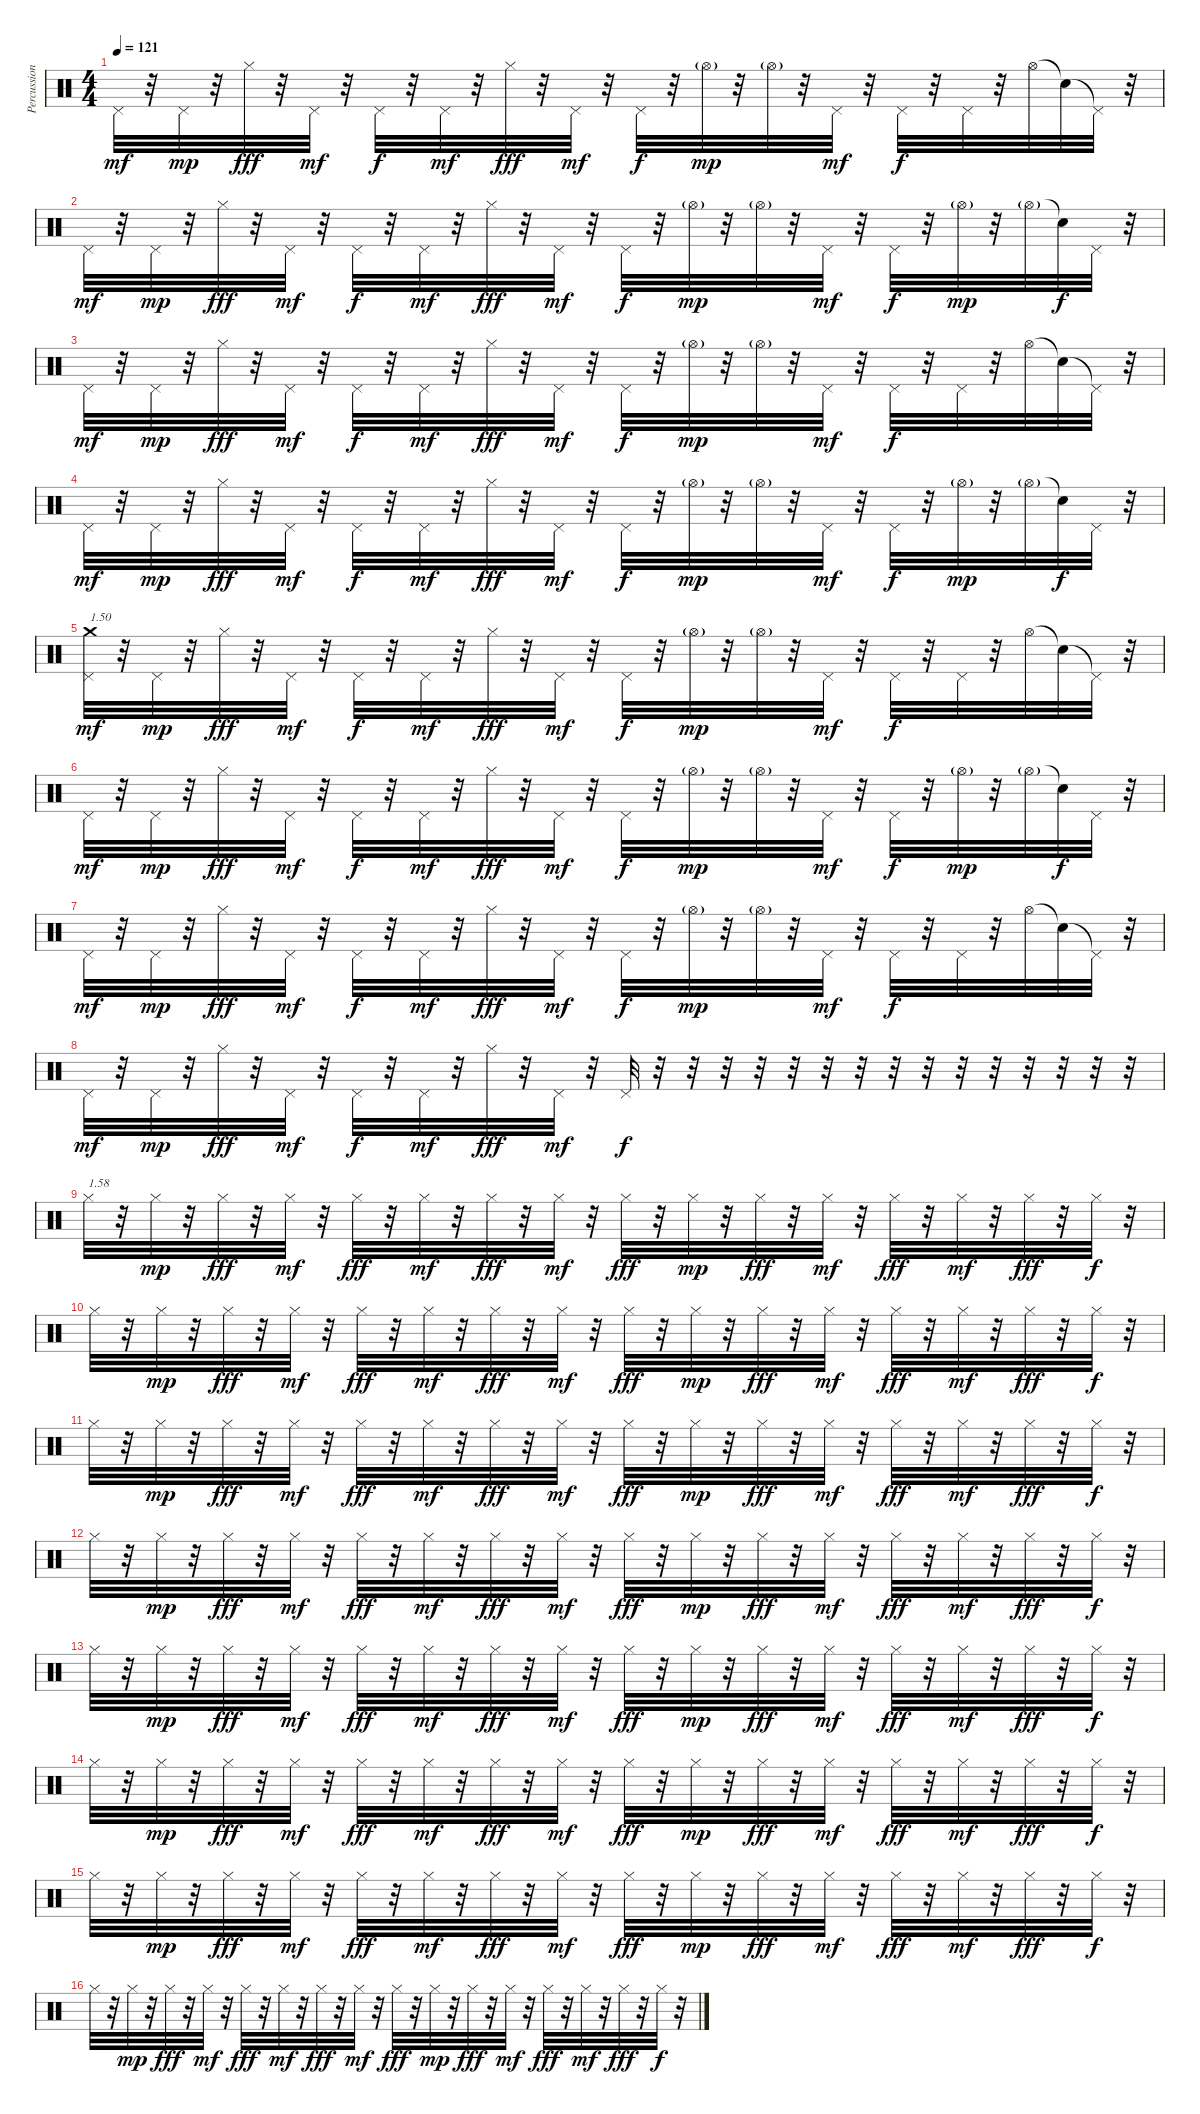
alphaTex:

\track ("Percussions" "Percussion") {instrument percussion}
\staff {score}
\articulation defaults
\ts (4 4)
\tempo 121
\clef neutral
\ks c "Pedal Hi-Hat (hit)".32{dy mf}
r.32 "Pedal Hi-Hat (hit)".32{dy mp} r.32 "Hi-Hat (closed)".32{dy fff} r.32 "Pedal Hi-Hat (hit)".32{dy mf} r.32 "Pedal Hi-Hat (hit)".32{dy f} r.32 "Pedal Hi-Hat (hit)".32{dy mf} r.32 "Hi-Hat (closed)".32{dy fff} r.32 "Pedal Hi-Hat (hit)".32{dy mf} r.32 "Pedal Hi-Hat (hit)".32{dy f} r.32 "Hi-Hat (open)"{g}.32{dy mp} r.32 "Hi-Hat (open)"{g}.32 r.32 "Pedal Hi-Hat (hit)".32{dy mf} r.32 "Pedal Hi-Hat (hit)".32{dy f} r.32 "Pedal Hi-Hat (hit)".32 r.32 "Hi-Hat (open)".32 "Snare (hit)"{t}.32 "Pedal Hi-Hat (hit)"{t}.32 r.32 |
"Pedal Hi-Hat (hit)".32{dy mf} r.32 "Pedal Hi-Hat (hit)".32{dy mp} r.32 "Hi-Hat (closed)".32{dy fff} r.32 "Pedal Hi-Hat (hit)".32{dy mf} r.32 "Pedal Hi-Hat (hit)".32{dy f} r.32 "Pedal Hi-Hat (hit)".32{dy mf} r.32 "Hi-Hat (closed)".32{dy fff} r.32 "Pedal Hi-Hat (hit)".32{dy mf} r.32 "Pedal Hi-Hat (hit)".32{dy f} r.32 "Hi-Hat (open)"{g}.32{dy mp} r.32 "Hi-Hat (open)"{g}.32 r.32 "Pedal Hi-Hat (hit)".32{dy mf} r.32 "Pedal Hi-Hat (hit)".32{dy f} r.32 "Hi-Hat (open)"{g}.32{dy mp} r.32 "Hi-Hat (open)"{g}.32 "Snare (hit)"{t}.32{dy f} "Pedal Hi-Hat (hit)".32 r.32 |
"Pedal Hi-Hat (hit)".32{dy mf} r.32 "Pedal Hi-Hat (hit)".32{dy mp} r.32 "Hi-Hat (closed)".32{dy fff} r.32 "Pedal Hi-Hat (hit)".32{dy mf} r.32 "Pedal Hi-Hat (hit)".32{dy f} r.32 "Pedal Hi-Hat (hit)".32{dy mf} r.32 "Hi-Hat (closed)".32{dy fff} r.32 "Pedal Hi-Hat (hit)".32{dy mf} r.32 "Pedal Hi-Hat (hit)".32{dy f} r.32 "Hi-Hat (open)"{g}.32{dy mp} r.32 "Hi-Hat (open)"{g}.32 r.32 "Pedal Hi-Hat (hit)".32{dy mf} r.32 "Pedal Hi-Hat (hit)".32{dy f} r.32 "Pedal Hi-Hat (hit)".32 r.32 "Hi-Hat (open)".32 "Snare (hit)"{t}.32 "Pedal Hi-Hat (hit)"{t}.32 r.32 |
"Pedal Hi-Hat (hit)".32{dy mf} r.32 "Pedal Hi-Hat (hit)".32{dy mp} r.32 "Hi-Hat (closed)".32{dy fff} r.32 "Pedal Hi-Hat (hit)".32{dy mf} r.32 "Pedal Hi-Hat (hit)".32{dy f} r.32 "Pedal Hi-Hat (hit)".32{dy mf} r.32 "Hi-Hat (closed)".32{dy fff} r.32 "Pedal Hi-Hat (hit)".32{dy mf} r.32 "Pedal Hi-Hat (hit)".32{dy f} r.32 "Hi-Hat (open)"{g}.32{dy mp} r.32 "Hi-Hat (open)"{g}.32 r.32 "Pedal Hi-Hat (hit)".32{dy mf} r.32 "Pedal Hi-Hat (hit)".32{dy f} r.32 "Hi-Hat (open)"{g}.32{dy mp} r.32 "Hi-Hat (open)"{g}.32 "Snare (hit)"{t}.32{dy f} "Pedal Hi-Hat (hit)".32 r.32 |
("Pedal Hi-Hat (hit)" "Crash medium (hit)").32{txt "1.50" dy mf} r.32 "Pedal Hi-Hat (hit)".32{dy mp} r.32 "Hi-Hat (closed)".32{dy fff} r.32 "Pedal Hi-Hat (hit)".32{dy mf} r.32 "Pedal Hi-Hat (hit)".32{dy f} r.32 "Pedal Hi-Hat (hit)".32{dy mf} r.32 "Hi-Hat (closed)".32{dy fff} r.32 "Pedal Hi-Hat (hit)".32{dy mf} r.32 "Pedal Hi-Hat (hit)".32{dy f} r.32 "Hi-Hat (open)"{g}.32{dy mp} r.32 "Hi-Hat (open)"{g}.32 r.32 "Pedal Hi-Hat (hit)".32{dy mf} r.32 "Pedal Hi-Hat (hit)".32{dy f} r.32 "Pedal Hi-Hat (hit)".32 r.32 "Hi-Hat (open)".32 "Snare (hit)"{t}.32 "Pedal Hi-Hat (hit)"{t}.32 r.32 |
"Pedal Hi-Hat (hit)".32{dy mf} r.32 "Pedal Hi-Hat (hit)".32{dy mp} r.32 "Hi-Hat (closed)".32{dy fff} r.32 "Pedal Hi-Hat (hit)".32{dy mf} r.32 "Pedal Hi-Hat (hit)".32{dy f} r.32 "Pedal Hi-Hat (hit)".32{dy mf} r.32 "Hi-Hat (closed)".32{dy fff} r.32 "Pedal Hi-Hat (hit)".32{dy mf} r.32 "Pedal Hi-Hat (hit)".32{dy f} r.32 "Hi-Hat (open)"{g}.32{dy mp} r.32 "Hi-Hat (open)"{g}.32 r.32 "Pedal Hi-Hat (hit)".32{dy mf} r.32 "Pedal Hi-Hat (hit)".32{dy f} r.32 "Hi-Hat (open)"{g}.32{dy mp} r.32 "Hi-Hat (open)"{g}.32 "Snare (hit)"{t}.32{dy f} "Pedal Hi-Hat (hit)".32 r.32 |
"Pedal Hi-Hat (hit)".32{dy mf} r.32 "Pedal Hi-Hat (hit)".32{dy mp} r.32 "Hi-Hat (closed)".32{dy fff} r.32 "Pedal Hi-Hat (hit)".32{dy mf} r.32 "Pedal Hi-Hat (hit)".32{dy f} r.32 "Pedal Hi-Hat (hit)".32{dy mf} r.32 "Hi-Hat (closed)".32{dy fff} r.32 "Pedal Hi-Hat (hit)".32{dy mf} r.32 "Pedal Hi-Hat (hit)".32{dy f} r.32 "Hi-Hat (open)"{g}.32{dy mp} r.32 "Hi-Hat (open)"{g}.32 r.32 "Pedal Hi-Hat (hit)".32{dy mf} r.32 "Pedal Hi-Hat (hit)".32{dy f} r.32 "Pedal Hi-Hat (hit)".32 r.32 "Hi-Hat (open)".32 "Snare (hit)"{t}.32 "Pedal Hi-Hat (hit)"{t}.32 r.32 |
"Pedal Hi-Hat (hit)".32{dy mf} r.32 "Pedal Hi-Hat (hit)".32{dy mp} r.32 "Hi-Hat (closed)".32{dy fff} r.32 "Pedal Hi-Hat (hit)".32{dy mf} r.32 "Pedal Hi-Hat (hit)".32{dy f} r.32 "Pedal Hi-Hat (hit)".32{dy mf} r.32 "Hi-Hat (closed)".32{dy fff} r.32 "Pedal Hi-Hat (hit)".32{dy mf} r.32 "Pedal Hi-Hat (hit)".32{dy f} r.32 r.32 r.32 r.32 r.32 r.32 r.32 r.32 r.32 r.32 r.32 r.32 r.32 r.32 r.32 |
"Hi-Hat (closed)".32{txt "1.58"} r.32 "Hi-Hat (closed)".32{dy mp} r.32 "Hi-Hat (closed)".32{dy fff} r.32 "Hi-Hat (closed)".32{dy mf} r.32 "Hi-Hat (closed)".32{dy fff} r.32 "Hi-Hat (closed)".32{dy mf} r.32 "Hi-Hat (closed)".32{dy fff} r.32 "Hi-Hat (closed)".32{dy mf} r.32 "Hi-Hat (closed)".32{dy fff} r.32 "Hi-Hat (closed)".32{dy mp} r.32 "Hi-Hat (closed)".32{dy fff} r.32 "Hi-Hat (closed)".32{dy mf} r.32 "Hi-Hat (closed)".32{dy fff} r.32 "Hi-Hat (closed)".32{dy mf} r.32 "Hi-Hat (closed)".32{dy fff} r.32 "Hi-Hat (closed)".32{dy f} r.32 |
"Hi-Hat (closed)".32 r.32 "Hi-Hat (closed)".32{dy mp} r.32 "Hi-Hat (closed)".32{dy fff} r.32 "Hi-Hat (closed)".32{dy mf} r.32 "Hi-Hat (closed)".32{dy fff} r.32 "Hi-Hat (closed)".32{dy mf} r.32 "Hi-Hat (closed)".32{dy fff} r.32 "Hi-Hat (closed)".32{dy mf} r.32 "Hi-Hat (closed)".32{dy fff} r.32 "Hi-Hat (closed)".32{dy mp} r.32 "Hi-Hat (closed)".32{dy fff} r.32 "Hi-Hat (closed)".32{dy mf} r.32 "Hi-Hat (closed)".32{dy fff} r.32 "Hi-Hat (closed)".32{dy mf} r.32 "Hi-Hat (closed)".32{dy fff} r.32 "Hi-Hat (closed)".32{dy f} r.32 |
"Hi-Hat (closed)".32 r.32 "Hi-Hat (closed)".32{dy mp} r.32 "Hi-Hat (closed)".32{dy fff} r.32 "Hi-Hat (closed)".32{dy mf} r.32 "Hi-Hat (closed)".32{dy fff} r.32 "Hi-Hat (closed)".32{dy mf} r.32 "Hi-Hat (closed)".32{dy fff} r.32 "Hi-Hat (closed)".32{dy mf} r.32 "Hi-Hat (closed)".32{dy fff} r.32 "Hi-Hat (closed)".32{dy mp} r.32 "Hi-Hat (closed)".32{dy fff} r.32 "Hi-Hat (closed)".32{dy mf} r.32 "Hi-Hat (closed)".32{dy fff} r.32 "Hi-Hat (closed)".32{dy mf} r.32 "Hi-Hat (closed)".32{dy fff} r.32 "Hi-Hat (closed)".32{dy f} r.32 |
"Hi-Hat (closed)".32 r.32 "Hi-Hat (closed)".32{dy mp} r.32 "Hi-Hat (closed)".32{dy fff} r.32 "Hi-Hat (closed)".32{dy mf} r.32 "Hi-Hat (closed)".32{dy fff} r.32 "Hi-Hat (closed)".32{dy mf} r.32 "Hi-Hat (closed)".32{dy fff} r.32 "Hi-Hat (closed)".32{dy mf} r.32 "Hi-Hat (closed)".32{dy fff} r.32 "Hi-Hat (closed)".32{dy mp} r.32 "Hi-Hat (closed)".32{dy fff} r.32 "Hi-Hat (closed)".32{dy mf} r.32 "Hi-Hat (closed)".32{dy fff} r.32 "Hi-Hat (closed)".32{dy mf} r.32 "Hi-Hat (closed)".32{dy fff} r.32 "Hi-Hat (closed)".32{dy f} r.32 |
"Hi-Hat (closed)".32 r.32 "Hi-Hat (closed)".32{dy mp} r.32 "Hi-Hat (closed)".32{dy fff} r.32 "Hi-Hat (closed)".32{dy mf} r.32 "Hi-Hat (closed)".32{dy fff} r.32 "Hi-Hat (closed)".32{dy mf} r.32 "Hi-Hat (closed)".32{dy fff} r.32 "Hi-Hat (closed)".32{dy mf} r.32 "Hi-Hat (closed)".32{dy fff} r.32 "Hi-Hat (closed)".32{dy mp} r.32 "Hi-Hat (closed)".32{dy fff} r.32 "Hi-Hat (closed)".32{dy mf} r.32 "Hi-Hat (closed)".32{dy fff} r.32 "Hi-Hat (closed)".32{dy mf} r.32 "Hi-Hat (closed)".32{dy fff} r.32 "Hi-Hat (closed)".32{dy f} r.32 |
"Hi-Hat (closed)".32 r.32 "Hi-Hat (closed)".32{dy mp} r.32 "Hi-Hat (closed)".32{dy fff} r.32 "Hi-Hat (closed)".32{dy mf} r.32 "Hi-Hat (closed)".32{dy fff} r.32 "Hi-Hat (closed)".32{dy mf} r.32 "Hi-Hat (closed)".32{dy fff} r.32 "Hi-Hat (closed)".32{dy mf} r.32 "Hi-Hat (closed)".32{dy fff} r.32 "Hi-Hat (closed)".32{dy mp} r.32 "Hi-Hat (closed)".32{dy fff} r.32 "Hi-Hat (closed)".32{dy mf} r.32 "Hi-Hat (closed)".32{dy fff} r.32 "Hi-Hat (closed)".32{dy mf} r.32 "Hi-Hat (closed)".32{dy fff} r.32 "Hi-Hat (closed)".32{dy f} r.32 |
"Hi-Hat (closed)".32 r.32 "Hi-Hat (closed)".32{dy mp} r.32 "Hi-Hat (closed)".32{dy fff} r.32 "Hi-Hat (closed)".32{dy mf} r.32 "Hi-Hat (closed)".32{dy fff} r.32 "Hi-Hat (closed)".32{dy mf} r.32 "Hi-Hat (closed)".32{dy fff} r.32 "Hi-Hat (closed)".32{dy mf} r.32 "Hi-Hat (closed)".32{dy fff} r.32 "Hi-Hat (closed)".32{dy mp} r.32 "Hi-Hat (closed)".32{dy fff} r.32 "Hi-Hat (closed)".32{dy mf} r.32 "Hi-Hat (closed)".32{dy fff} r.32 "Hi-Hat (closed)".32{dy mf} r.32 "Hi-Hat (closed)".32{dy fff} r.32 "Hi-Hat (closed)".32{dy f} r.32 |
"Hi-Hat (closed)".32 r.32 "Hi-Hat (closed)".32{dy mp} r.32 "Hi-Hat (closed)".32{dy fff} r.32 "Hi-Hat (closed)".32{dy mf} r.32 "Hi-Hat (closed)".32{dy fff} r.32 "Hi-Hat (closed)".32{dy mf} r.32 "Hi-Hat (closed)".32{dy fff} r.32 "Hi-Hat (closed)".32{dy mf} r.32 "Hi-Hat (closed)".32{dy fff} r.32 "Hi-Hat (closed)".32{dy mp} r.32 "Hi-Hat (closed)".32{dy fff} r.32 "Hi-Hat (closed)".32{dy mf} r.32 "Hi-Hat (closed)".32{dy fff} r.32 "Hi-Hat (closed)".32{dy mf} r.32 "Hi-Hat (closed)".32{dy fff} r.32 "Hi-Hat (closed)".32{dy f} r.32
